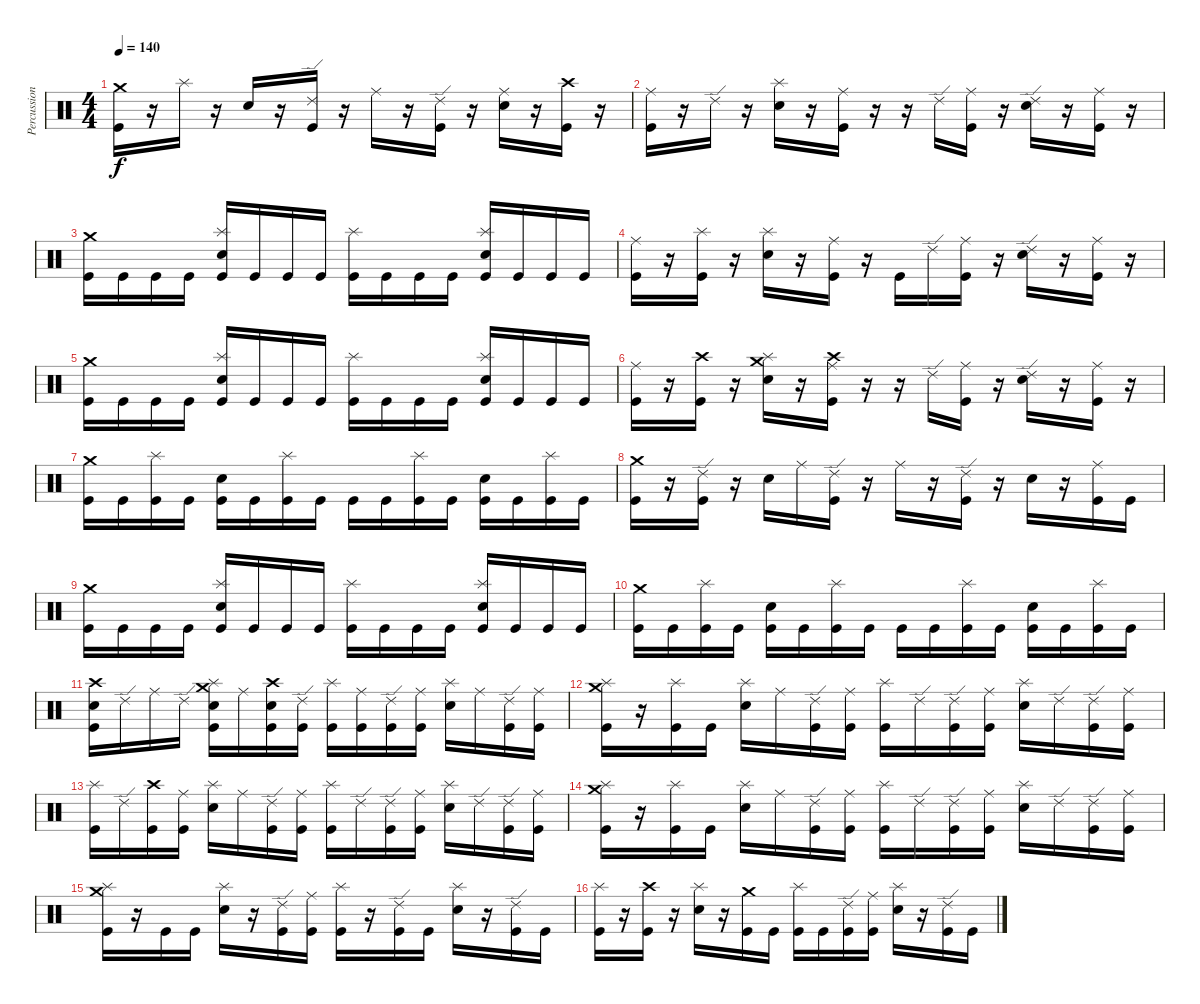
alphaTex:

\track ("Percussion" "Percussion") {instrument percussion}
\staff {score}
\articulation defaults
\ts (4 4)
\tempo 140
\clef neutral
\ks c
("Crash medium (hit)" "Kick (hit)").16{dy f} r.16 "Splash (hit)".16 r.16 "Electric Snare (hit)".16 r.16 ("Ride (edge) 2" "Kick (hit)").16 r.16 "Ride (middle)".16 r.16 ("Ride (edge) 2" "Kick (hit)").16 r.16 ("Electric Snare (hit)" "Ride (middle)").16 r.16 ("Crash high (hit)" "Kick (hit)").16 r.16 |
("Ride (middle)" "Kick (hit)").16 r.16 "Ride (edge) 2".16 r.16 ("Electric Snare (hit)" "Splash (hit)").16 r.16 ("Ride (middle)" "Kick (hit)").16 r.16 r.16 "Ride (edge) 2".16 ("Ride (middle)" "Kick (hit)").16 r.16 ("Electric Snare (hit)" "Ride (edge) 2").16 r.16 ("Ride (middle)" "Kick (hit)").16 r.16 |
("Crash medium (hit)" "Kick (hit)").16 "Kick (hit)".16 "Kick (hit)".16 "Kick (hit)".16 ("Electric Snare (hit)" "Splash (hit)" "Kick (hit)").16 "Kick (hit)".16 "Kick (hit)".16 "Kick (hit)".16 ("Splash (hit)" "Kick (hit)").16 "Kick (hit)".16 "Kick (hit)".16 "Kick (hit)".16 ("Electric Snare (hit)" "Splash (hit)" "Kick (hit)").16 "Kick (hit)".16 "Kick (hit)".16 "Kick (hit)".16 |
("Ride (middle)" "Kick (hit)").16 r.16 ("Splash (hit)" "Kick (hit)").16 r.16 ("Electric Snare (hit)" "Splash (hit)").16 r.16 ("Ride (middle)" "Kick (hit)").16 r.16 "Kick (hit)".16 "Ride (edge) 2".16 ("Ride (middle)" "Kick (hit)").16 r.16 ("Electric Snare (hit)" "Ride (edge) 2").16 r.16 ("Ride (middle)" "Kick (hit)").16 r.16 |
("Crash medium (hit)" "Kick (hit)").16 "Kick (hit)".16 "Kick (hit)".16 "Kick (hit)".16 ("Electric Snare (hit)" "Splash (hit)" "Kick (hit)").16 "Kick (hit)".16 "Kick (hit)".16 "Kick (hit)".16 ("Splash (hit)" "Kick (hit)").16 "Kick (hit)".16 "Kick (hit)".16 "Kick (hit)".16 ("Electric Snare (hit)" "Splash (hit)" "Kick (hit)").16 "Kick (hit)".16 "Kick (hit)".16 "Kick (hit)".16 |
("Ride (middle)" "Kick (hit)").16 r.16 ("Crash high (hit)" "Kick (hit)").16 r.16 ("Crash medium (hit)" "Electric Snare (hit)" "Splash (hit)").16 r.16 ("Crash high (hit)" "Ride (middle)" "Kick (hit)").16 r.16 r.16 "Ride (edge) 2".16 ("Ride (middle)" "Kick (hit)").16 r.16 ("Electric Snare (hit)" "Ride (edge) 2").16 r.16 ("Ride (middle)" "Kick (hit)").16 r.16 |
("Crash medium (hit)" "Kick (hit)").16 "Kick (hit)".16 ("Splash (hit)" "Kick (hit)").16 "Kick (hit)".16 ("Electric Snare (hit)" "Kick (hit)").16 "Kick (hit)".16 ("Splash (hit)" "Kick (hit)").16 "Kick (hit)".16 "Kick (hit)".16 "Kick (hit)".16 ("Splash (hit)" "Kick (hit)").16 "Kick (hit)".16 ("Electric Snare (hit)" "Kick (hit)").16 "Kick (hit)".16 ("Splash (hit)" "Kick (hit)").16 "Kick (hit)".16 |
("Crash medium (hit)" "Kick (hit)").16 r.16 ("Ride (edge) 2" "Kick (hit)").16 r.16 "Electric Snare (hit)".16 "Ride (middle)".16 ("Ride (edge) 2" "Kick (hit)").16 r.16 "Ride (middle)".16 r.16 ("Ride (edge) 2" "Kick (hit)").16 r.16 "Electric Snare (hit)".16 r.16 ("Ride (middle)" "Kick (hit)").16 "Kick (hit)".16 |
("Crash medium (hit)" "Kick (hit)").16 "Kick (hit)".16 "Kick (hit)".16 "Kick (hit)".16 ("Electric Snare (hit)" "Splash (hit)" "Kick (hit)").16 "Kick (hit)".16 "Kick (hit)".16 "Kick (hit)".16 ("Splash (hit)" "Kick (hit)").16 "Kick (hit)".16 "Kick (hit)".16 "Kick (hit)".16 ("Electric Snare (hit)" "Splash (hit)" "Kick (hit)").16 "Kick (hit)".16 "Kick (hit)".16 "Kick (hit)".16 |
("Crash medium (hit)" "Kick (hit)").16 "Kick (hit)".16 ("Splash (hit)" "Kick (hit)").16 "Kick (hit)".16 ("Electric Snare (hit)" "Kick (hit)").16 "Kick (hit)".16 ("Splash (hit)" "Kick (hit)").16 "Kick (hit)".16 "Kick (hit)".16 "Kick (hit)".16 ("Splash (hit)" "Kick (hit)").16 "Kick (hit)".16 ("Electric Snare (hit)" "Kick (hit)").16 "Kick (hit)".16 ("Splash (hit)" "Kick (hit)").16 "Kick (hit)".16 |
("Crash high (hit)" "Electric Snare (hit)" "Kick (hit)").16 "Ride (edge) 2".16 "Ride (middle)".16 "Ride (edge) 2".16 ("Crash medium (hit)" "Electric Snare (hit)" "Splash (hit)" "Kick (hit)").16 "Ride (middle)".16 ("Crash high (hit)" "Electric Snare (hit)" "Kick (hit)").16 ("Ride (edge) 2" "Kick (hit)").16 ("Splash (hit)" "Kick (hit)").16 ("Ride (middle)" "Kick (hit)").16 ("Ride (edge) 2" "Kick (hit)").16 ("Ride (middle)" "Kick (hit)").16 ("Electric Snare (hit)" "Splash (hit)").16 "Ride (middle)".16 ("Ride (edge) 2" "Kick (hit)").16 ("Ride (middle)" "Kick (hit)").16 |
("Crash medium (hit)" "Splash (hit)" "Kick (hit)").16 r.16 ("Splash (hit)" "Kick (hit)").16 "Kick (hit)".16 ("Electric Snare (hit)" "Splash (hit)").16 "Ride (middle)".16 ("Ride (edge) 2" "Kick (hit)").16 ("Ride (middle)" "Kick (hit)").16 ("Splash (hit)" "Kick (hit)").16 "Ride (edge) 2".16 ("Ride (edge) 2" "Kick (hit)").16 ("Ride (middle)" "Kick (hit)").16 ("Electric Snare (hit)" "Splash (hit)").16 "Ride (edge) 2".16 ("Ride (edge) 2" "Kick (hit)").16 ("Ride (middle)" "Kick (hit)").16 |
("Splash (hit)" "Kick (hit)").16 "Ride (edge) 2".16 ("Crash high (hit)" "Kick (hit)").16 ("Ride (middle)" "Kick (hit)").16 ("Electric Snare (hit)" "Splash (hit)").16 "Ride (middle)".16 ("Ride (edge) 2" "Kick (hit)").16 ("Ride (middle)" "Kick (hit)").16 ("Splash (hit)" "Kick (hit)").16 "Ride (edge) 2".16 ("Ride (edge) 2" "Kick (hit)").16 ("Ride (middle)" "Kick (hit)").16 ("Electric Snare (hit)" "Splash (hit)").16 "Ride (edge) 2".16 ("Ride (edge) 2" "Kick (hit)").16 ("Ride (middle)" "Kick (hit)").16 |
("Crash medium (hit)" "Splash (hit)" "Kick (hit)").16 r.16 ("Splash (hit)" "Kick (hit)").16 "Kick (hit)".16 ("Electric Snare (hit)" "Splash (hit)").16 "Ride (middle)".16 ("Ride (edge) 2" "Kick (hit)").16 ("Ride (middle)" "Kick (hit)").16 ("Splash (hit)" "Kick (hit)").16 "Ride (edge) 2".16 ("Ride (edge) 2" "Kick (hit)").16 ("Ride (middle)" "Kick (hit)").16 ("Electric Snare (hit)" "Splash (hit)").16 "Ride (edge) 2".16 ("Ride (edge) 2" "Kick (hit)").16 ("Ride (middle)" "Kick (hit)").16 |
("Crash medium (hit)" "Splash (hit)" "Kick (hit)").16 r.16 "Kick (hit)".16 "Kick (hit)".16 ("Electric Snare (hit)" "Splash (hit)").16 r.16 ("Ride (edge) 2" "Kick (hit)").16 ("Ride (middle)" "Kick (hit)").16 ("Splash (hit)" "Kick (hit)").16 r.16 ("Ride (edge) 2" "Kick (hit)").16 "Kick (hit)".16 ("Electric Snare (hit)" "Splash (hit)").16 r.16 ("Ride (edge) 2" "Kick (hit)").16 "Kick (hit)".16 |
("Splash (hit)" "Kick (hit)").16 r.16 ("Crash high (hit)" "Kick (hit)").16 r.16 ("Electric Snare (hit)" "Splash (hit)").16 r.16 ("Crash medium (hit)" "Kick (hit)").16 "Kick (hit)".16 ("Splash (hit)" "Kick (hit)").16 "Kick (hit)".16 ("Ride (edge) 2" "Kick (hit)").16 ("Ride (middle)" "Kick (hit)").16 ("Electric Snare (hit)" "Splash (hit)").16 r.16 ("Ride (edge) 2" "Kick (hit)").16 "Kick (hit)".16
